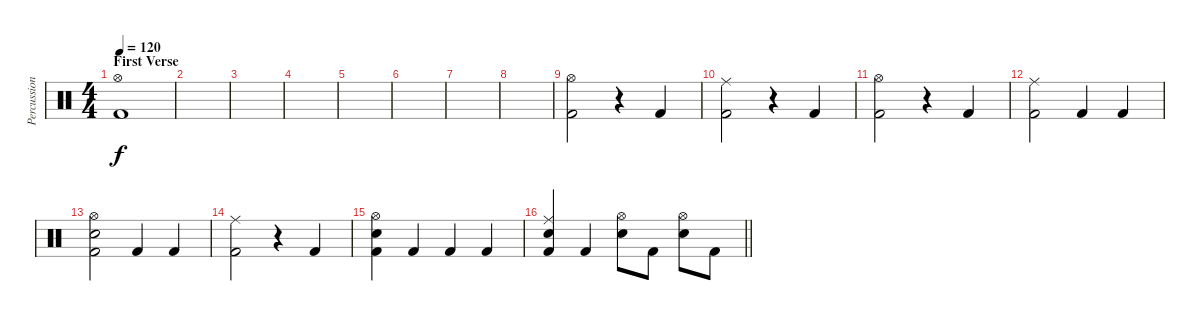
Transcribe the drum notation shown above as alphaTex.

\track ("Percussion" "Percussion") {instrument percussion}
\staff {score}
\articulation defaults
\ts (4 4)
\section ("" "First Verse")
\tempo 120
\clef neutral
\ks c
("Hi-Hat (open)" "Kick (hit) 2").1{dy f} |
|
|
|
|
|
|
|
("Hi-Hat (open)" "Kick (hit) 2").2 r.4 "Kick (hit) 2".4 |
("Ride (middle)" "Kick (hit) 2").2 r.4 "Kick (hit) 2".4 |
("Hi-Hat (open)" "Kick (hit) 2").2 r.4 "Kick (hit) 2".4 |
("Ride (middle)" "Kick (hit) 2").2 "Kick (hit) 2".4 "Kick (hit) 2".4 |
("Hi-Hat (open)" "Electric Snare (hit)" "Kick (hit) 2").2 "Kick (hit) 2".4 "Kick (hit) 2".4 |
("Ride (middle)" "Kick (hit) 2").2 r.4 "Kick (hit) 2".4 |
("Hi-Hat (open)" "Electric Snare (hit)" "Kick (hit) 2").4 "Kick (hit) 2".4 "Kick (hit) 2".4 "Kick (hit) 2".4 |
\barLineRight lightlight
("Ride (middle)" "Electric Snare (hit)" "Kick (hit) 2").4 "Kick (hit) 2".4 ("Hi-Hat (open)" "Electric Snare (hit)").8 "Kick (hit) 2".8 ("Hi-Hat (open)" "Electric Snare (hit)").8 "Kick (hit) 2".8
